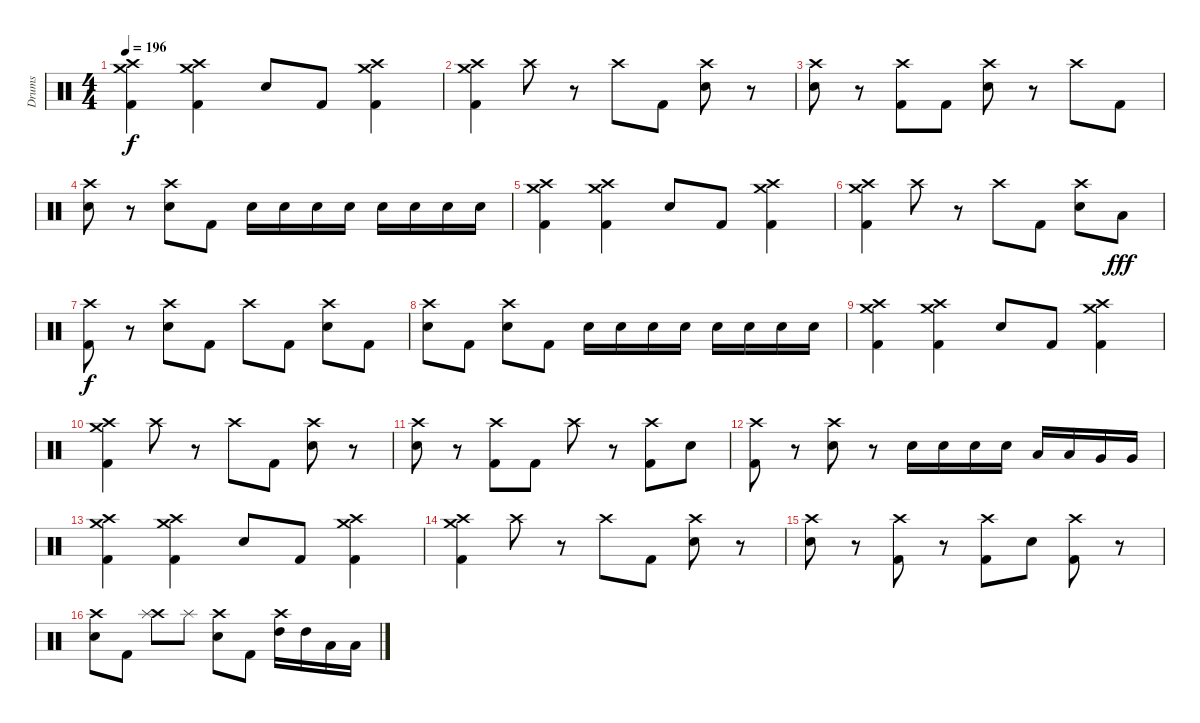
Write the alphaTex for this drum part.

\track ("Drums" "Drums") {instrument percussion}
\staff {score}
\articulation defaults
\ts (4 4)
\tempo 196
\clef neutral
\ks c
("Crash medium (hit)" "Crash high (hit)" "Kick (hit) 2").4{dy f} ("Crash medium (hit)" "Crash high (hit)" "Kick (hit) 2").4 "Electric Snare (hit)".8 "Kick (hit) 2".8 ("Crash medium (hit)" "Crash high (hit)" "Kick (hit) 2").4 |
("Crash medium (hit)" "Crash high (hit)" "Kick (hit) 2").4 "Crash high (hit)".8 r.8 "Crash high (hit)".8 "Kick (hit) 2".8 ("Crash high (hit)" "Electric Snare (hit)").8 r.8 |
("Crash high (hit)" "Electric Snare (hit)").8 r.8 ("Crash high (hit)" "Kick (hit) 2").8 "Kick (hit) 2".8 ("Crash high (hit)" "Electric Snare (hit)").8 r.8 "Crash high (hit)".8 "Kick (hit) 2".8 |
("Crash high (hit)" "Electric Snare (hit)").8 r.8 ("Crash high (hit)" "Electric Snare (hit)").8 "Kick (hit) 2".8 "Electric Snare (hit)".16 "Electric Snare (hit)".16 "Electric Snare (hit)".16 "Electric Snare (hit)".16 "Electric Snare (hit)".16 "Electric Snare (hit)".16 "Electric Snare (hit)".16 "Electric Snare (hit)".16 |
("Crash medium (hit)" "Crash high (hit)" "Kick (hit) 2").4 ("Crash medium (hit)" "Crash high (hit)" "Kick (hit) 2").4 "Electric Snare (hit)".8 "Kick (hit) 2".8 ("Crash medium (hit)" "Crash high (hit)" "Kick (hit) 2").4 |
("Crash medium (hit)" "Crash high (hit)" "Kick (hit) 2").4 "Crash high (hit)".8 r.8 "Crash high (hit)".8 "Kick (hit) 2".8 ("Crash high (hit)" "Electric Snare (hit)").8 "Low Tom (hit)".8{dy fff} |
("Crash high (hit)" "Kick (hit) 2").8{dy f} r.8 ("Crash high (hit)" "Electric Snare (hit)").8 "Kick (hit) 2".8 "Crash high (hit)".8 "Kick (hit) 2".8 ("Crash high (hit)" "Electric Snare (hit)").8 "Kick (hit) 2".8 |
("Crash high (hit)" "Electric Snare (hit)").8 "Kick (hit) 2".8 ("Crash high (hit)" "Electric Snare (hit)").8 "Kick (hit) 2".8 "Electric Snare (hit)".16 "Electric Snare (hit)".16 "Electric Snare (hit)".16 "Electric Snare (hit)".16 "Electric Snare (hit)".16 "Electric Snare (hit)".16 "Electric Snare (hit)".16 "Electric Snare (hit)".16 |
("Crash medium (hit)" "Crash high (hit)" "Kick (hit) 2").4 ("Crash medium (hit)" "Crash high (hit)" "Kick (hit) 2").4 "Electric Snare (hit)".8 "Kick (hit) 2".8 ("Crash medium (hit)" "Crash high (hit)" "Kick (hit) 2").4 |
("Crash medium (hit)" "Crash high (hit)" "Kick (hit) 2").4 "Crash high (hit)".8 r.8 "Crash high (hit)".8 "Kick (hit) 2".8 ("Crash high (hit)" "Electric Snare (hit)").8 r.8 |
("Crash high (hit)" "Electric Snare (hit)").8 r.8 ("Crash high (hit)" "Kick (hit) 2").8 "Kick (hit) 2".8 "Crash high (hit)".8 r.8 ("Crash high (hit)" "Kick (hit) 2").8 "Electric Snare (hit)".8 |
("Crash high (hit)" "Kick (hit) 2").8 r.8 ("Crash high (hit)" "Electric Snare (hit)").8 r.8 "Electric Snare (hit)".16 "Electric Snare (hit)".16 "Electric Snare (hit)".16 "Electric Snare (hit)".16 "Low Tom (hit)".16 "Low Tom (hit)".16 "Very Low Tom (hit)".16 "Very Low Tom (hit)".16 |
("Crash medium (hit)" "Crash high (hit)" "Kick (hit) 2").4 ("Crash medium (hit)" "Crash high (hit)" "Kick (hit) 2").4 "Electric Snare (hit)".8 "Kick (hit) 2".8 ("Crash medium (hit)" "Crash high (hit)" "Kick (hit) 2").4 |
("Crash medium (hit)" "Crash high (hit)" "Kick (hit) 2").4 "Crash high (hit)".8 r.8 "Crash high (hit)".8 "Kick (hit) 2".8 ("Crash high (hit)" "Electric Snare (hit)").8 r.8 |
("Crash high (hit)" "Electric Snare (hit)").8 r.8 ("Crash high (hit)" "Kick (hit) 2").8 r.8 ("Crash high (hit)" "Kick (hit) 2").8 "Electric Snare (hit)".8 ("Crash high (hit)" "Kick (hit) 2").8 r.8 |
("Crash high (hit)" "Electric Snare (hit)").8 "Kick (hit) 2".8 ("Crash high (hit)" "Splash (hit)").8 "Splash (hit)".8 ("Crash high (hit)" "Electric Snare (hit)").8 "Kick (hit) 2".8 ("Crash high (hit)" "High Tom (hit)").16 "High Tom (hit)".16 "Low Tom (hit)".16 "Low Tom (hit)".16
